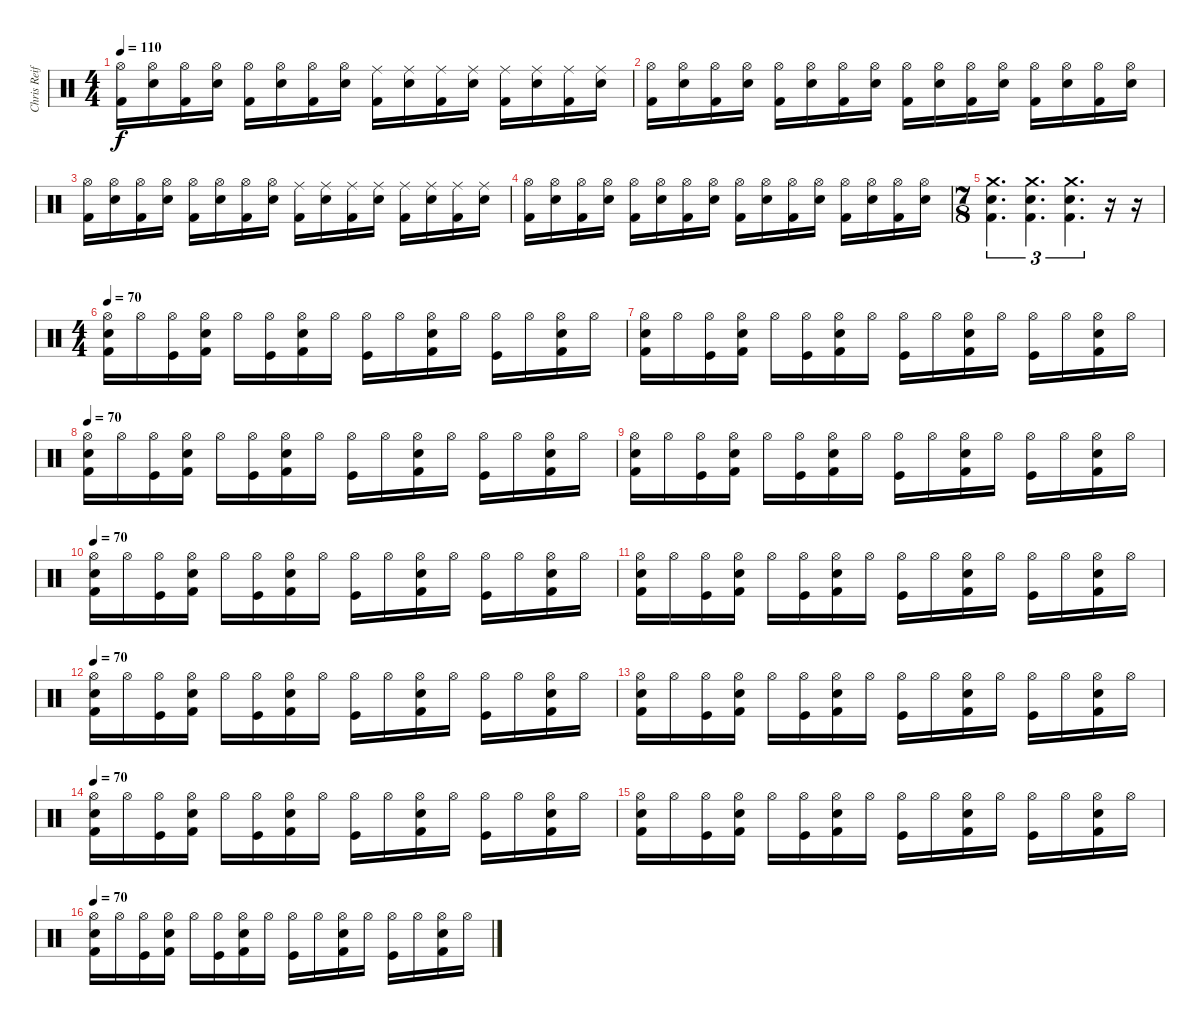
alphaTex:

\track ("Chris Reifert" "Chris Reif") {instrument percussion}
\staff {score}
\articulation defaults
\ts (4 4)
\tempo 110
\clef neutral
\ks c
("Hi-Hat (open)" "Kick (hit) 2").16{dy f} ("Hi-Hat (open)" "Snare (hit) 2").16 ("Hi-Hat (open)" "Kick (hit) 2").16 ("Hi-Hat (open)" "Snare (hit) 2").16 ("Hi-Hat (open)" "Kick (hit) 2").16 ("Hi-Hat (open)" "Snare (hit) 2").16 ("Hi-Hat (open)" "Kick (hit) 2").16 ("Hi-Hat (open)" "Snare (hit) 2").16 ("Ride (middle)" "Kick (hit) 2").16 ("Ride (middle)" "Snare (hit) 2").16 ("Ride (middle)" "Kick (hit) 2").16 ("Ride (middle)" "Snare (hit) 2").16 ("Ride (middle)" "Kick (hit) 2").16 ("Ride (middle)" "Snare (hit) 2").16 ("Ride (middle)" "Kick (hit) 2").16 ("Ride (middle)" "Snare (hit) 2").16 |
("Hi-Hat (open)" "Kick (hit) 2").16 ("Hi-Hat (open)" "Snare (hit) 2").16 ("Hi-Hat (open)" "Kick (hit) 2").16 ("Hi-Hat (open)" "Snare (hit) 2").16 ("Hi-Hat (open)" "Kick (hit) 2").16 ("Hi-Hat (open)" "Snare (hit) 2").16 ("Hi-Hat (open)" "Kick (hit) 2").16 ("Hi-Hat (open)" "Snare (hit) 2").16 ("Hi-Hat (open)" "Kick (hit) 2").16 ("Hi-Hat (open)" "Snare (hit) 2").16 ("Hi-Hat (open)" "Kick (hit) 2").16 ("Hi-Hat (open)" "Snare (hit) 2").16 ("Hi-Hat (open)" "Kick (hit) 2").16 ("Hi-Hat (open)" "Snare (hit) 2").16 ("Hi-Hat (open)" "Kick (hit) 2").16 ("Hi-Hat (open)" "Snare (hit) 2").16 |
("Hi-Hat (open)" "Kick (hit) 2").16 ("Hi-Hat (open)" "Snare (hit) 2").16 ("Hi-Hat (open)" "Kick (hit) 2").16 ("Hi-Hat (open)" "Snare (hit) 2").16 ("Hi-Hat (open)" "Kick (hit) 2").16 ("Hi-Hat (open)" "Snare (hit) 2").16 ("Hi-Hat (open)" "Kick (hit) 2").16 ("Hi-Hat (open)" "Snare (hit) 2").16 ("Ride (middle)" "Kick (hit) 2").16 ("Ride (middle)" "Snare (hit) 2").16 ("Ride (middle)" "Kick (hit) 2").16 ("Ride (middle)" "Snare (hit) 2").16 ("Ride (middle)" "Kick (hit) 2").16 ("Ride (middle)" "Snare (hit) 2").16 ("Ride (middle)" "Kick (hit) 2").16 ("Ride (middle)" "Snare (hit) 2").16 |
("Hi-Hat (open)" "Kick (hit) 2").16 ("Hi-Hat (open)" "Snare (hit) 2").16 ("Hi-Hat (open)" "Kick (hit) 2").16 ("Hi-Hat (open)" "Snare (hit) 2").16 ("Hi-Hat (open)" "Kick (hit) 2").16 ("Hi-Hat (open)" "Snare (hit) 2").16 ("Hi-Hat (open)" "Kick (hit) 2").16 ("Hi-Hat (open)" "Snare (hit) 2").16 ("Hi-Hat (open)" "Kick (hit) 2").16 ("Hi-Hat (open)" "Snare (hit) 2").16 ("Hi-Hat (open)" "Kick (hit) 2").16 ("Hi-Hat (open)" "Snare (hit) 2").16 ("Hi-Hat (open)" "Kick (hit) 2").16 ("Hi-Hat (open)" "Snare (hit) 2").16 ("Hi-Hat (open)" "Kick (hit) 2").16 ("Hi-Hat (open)" "Snare (hit) 2").16 |
\ts (7 8)
("Crash medium (hit)" "Snare (hit) 2" "Kick (hit) 2").4{d tu (3 2)} ("Crash medium (hit)" "Snare (hit) 2" "Kick (hit) 2").4{d tu (3 2)} ("Crash medium (hit)" "Snare (hit) 2" "Kick (hit) 2").4{d tu (3 2)} r.16 r.16 |
\ts (4 4)
\tempo 70
("Hi-Hat (open)" "Snare (hit) 2" "Kick (hit) 2").16 "Hi-Hat (open)".16 ("Hi-Hat (open)" "Kick (hit)").16 ("Hi-Hat (open)" "Snare (hit) 2" "Kick (hit) 2").16 "Hi-Hat (open)".16 ("Hi-Hat (open)" "Kick (hit)").16 ("Hi-Hat (open)" "Snare (hit) 2" "Kick (hit) 2").16 "Hi-Hat (open)".16 ("Hi-Hat (open)" "Kick (hit)").16 "Hi-Hat (open)".16 ("Hi-Hat (open)" "Snare (hit) 2" "Kick (hit) 2").16 "Hi-Hat (open)".16 ("Hi-Hat (open)" "Kick (hit)").16 "Hi-Hat (open)".16 ("Hi-Hat (open)" "Snare (hit) 2" "Kick (hit) 2").16 "Hi-Hat (open)".16 |
("Hi-Hat (open)" "Snare (hit) 2" "Kick (hit) 2").16 "Hi-Hat (open)".16 ("Hi-Hat (open)" "Kick (hit)").16 ("Hi-Hat (open)" "Snare (hit) 2" "Kick (hit) 2").16 "Hi-Hat (open)".16 ("Hi-Hat (open)" "Kick (hit)").16 ("Hi-Hat (open)" "Snare (hit) 2" "Kick (hit) 2").16 "Hi-Hat (open)".16 ("Hi-Hat (open)" "Kick (hit)").16 "Hi-Hat (open)".16 ("Hi-Hat (open)" "Snare (hit) 2" "Kick (hit) 2").16 "Hi-Hat (open)".16 ("Hi-Hat (open)" "Kick (hit)").16 "Hi-Hat (open)".16 ("Hi-Hat (open)" "Snare (hit) 2" "Kick (hit) 2").16 "Hi-Hat (open)".16 |
\tempo 70
("Hi-Hat (open)" "Snare (hit) 2" "Kick (hit) 2").16 "Hi-Hat (open)".16 ("Hi-Hat (open)" "Kick (hit)").16 ("Hi-Hat (open)" "Snare (hit) 2" "Kick (hit) 2").16 "Hi-Hat (open)".16 ("Hi-Hat (open)" "Kick (hit)").16 ("Hi-Hat (open)" "Snare (hit) 2" "Kick (hit) 2").16 "Hi-Hat (open)".16 ("Hi-Hat (open)" "Kick (hit)").16 "Hi-Hat (open)".16 ("Hi-Hat (open)" "Snare (hit) 2" "Kick (hit) 2").16 "Hi-Hat (open)".16 ("Hi-Hat (open)" "Kick (hit)").16 "Hi-Hat (open)".16 ("Hi-Hat (open)" "Snare (hit) 2" "Kick (hit) 2").16 "Hi-Hat (open)".16 |
("Hi-Hat (open)" "Snare (hit) 2" "Kick (hit) 2").16 "Hi-Hat (open)".16 ("Hi-Hat (open)" "Kick (hit)").16 ("Hi-Hat (open)" "Snare (hit) 2" "Kick (hit) 2").16 "Hi-Hat (open)".16 ("Hi-Hat (open)" "Kick (hit)").16 ("Hi-Hat (open)" "Snare (hit) 2" "Kick (hit) 2").16 "Hi-Hat (open)".16 ("Hi-Hat (open)" "Kick (hit)").16 "Hi-Hat (open)".16 ("Hi-Hat (open)" "Snare (hit) 2" "Kick (hit) 2").16 "Hi-Hat (open)".16 ("Hi-Hat (open)" "Kick (hit)").16 "Hi-Hat (open)".16 ("Hi-Hat (open)" "Snare (hit) 2" "Kick (hit) 2").16 "Hi-Hat (open)".16 |
\tempo 70
("Hi-Hat (open)" "Snare (hit) 2" "Kick (hit) 2").16 "Hi-Hat (open)".16 ("Hi-Hat (open)" "Kick (hit)").16 ("Hi-Hat (open)" "Snare (hit) 2" "Kick (hit) 2").16 "Hi-Hat (open)".16 ("Hi-Hat (open)" "Kick (hit)").16 ("Hi-Hat (open)" "Snare (hit) 2" "Kick (hit) 2").16 "Hi-Hat (open)".16 ("Hi-Hat (open)" "Kick (hit)").16 "Hi-Hat (open)".16 ("Hi-Hat (open)" "Snare (hit) 2" "Kick (hit) 2").16 "Hi-Hat (open)".16 ("Hi-Hat (open)" "Kick (hit)").16 "Hi-Hat (open)".16 ("Hi-Hat (open)" "Snare (hit) 2" "Kick (hit) 2").16 "Hi-Hat (open)".16 |
("Hi-Hat (open)" "Snare (hit) 2" "Kick (hit) 2").16 "Hi-Hat (open)".16 ("Hi-Hat (open)" "Kick (hit)").16 ("Hi-Hat (open)" "Snare (hit) 2" "Kick (hit) 2").16 "Hi-Hat (open)".16 ("Hi-Hat (open)" "Kick (hit)").16 ("Hi-Hat (open)" "Snare (hit) 2" "Kick (hit) 2").16 "Hi-Hat (open)".16 ("Hi-Hat (open)" "Kick (hit)").16 "Hi-Hat (open)".16 ("Hi-Hat (open)" "Snare (hit) 2" "Kick (hit) 2").16 "Hi-Hat (open)".16 ("Hi-Hat (open)" "Kick (hit)").16 "Hi-Hat (open)".16 ("Hi-Hat (open)" "Snare (hit) 2" "Kick (hit) 2").16 "Hi-Hat (open)".16 |
\tempo 70
("Hi-Hat (open)" "Snare (hit) 2" "Kick (hit) 2").16 "Hi-Hat (open)".16 ("Hi-Hat (open)" "Kick (hit)").16 ("Hi-Hat (open)" "Snare (hit) 2" "Kick (hit) 2").16 "Hi-Hat (open)".16 ("Hi-Hat (open)" "Kick (hit)").16 ("Hi-Hat (open)" "Snare (hit) 2" "Kick (hit) 2").16 "Hi-Hat (open)".16 ("Hi-Hat (open)" "Kick (hit)").16 "Hi-Hat (open)".16 ("Hi-Hat (open)" "Snare (hit) 2" "Kick (hit) 2").16 "Hi-Hat (open)".16 ("Hi-Hat (open)" "Kick (hit)").16 "Hi-Hat (open)".16 ("Hi-Hat (open)" "Snare (hit) 2" "Kick (hit) 2").16 "Hi-Hat (open)".16 |
("Hi-Hat (open)" "Snare (hit) 2" "Kick (hit) 2").16 "Hi-Hat (open)".16 ("Hi-Hat (open)" "Kick (hit)").16 ("Hi-Hat (open)" "Snare (hit) 2" "Kick (hit) 2").16 "Hi-Hat (open)".16 ("Hi-Hat (open)" "Kick (hit)").16 ("Hi-Hat (open)" "Snare (hit) 2" "Kick (hit) 2").16 "Hi-Hat (open)".16 ("Hi-Hat (open)" "Kick (hit)").16 "Hi-Hat (open)".16 ("Hi-Hat (open)" "Snare (hit) 2" "Kick (hit) 2").16 "Hi-Hat (open)".16 ("Hi-Hat (open)" "Kick (hit)").16 "Hi-Hat (open)".16 ("Hi-Hat (open)" "Snare (hit) 2" "Kick (hit) 2").16 "Hi-Hat (open)".16 |
\tempo 70
("Hi-Hat (open)" "Snare (hit) 2" "Kick (hit) 2").16 "Hi-Hat (open)".16 ("Hi-Hat (open)" "Kick (hit)").16 ("Hi-Hat (open)" "Snare (hit) 2" "Kick (hit) 2").16 "Hi-Hat (open)".16 ("Hi-Hat (open)" "Kick (hit)").16 ("Hi-Hat (open)" "Snare (hit) 2" "Kick (hit) 2").16 "Hi-Hat (open)".16 ("Hi-Hat (open)" "Kick (hit)").16 "Hi-Hat (open)".16 ("Hi-Hat (open)" "Snare (hit) 2" "Kick (hit) 2").16 "Hi-Hat (open)".16 ("Hi-Hat (open)" "Kick (hit)").16 "Hi-Hat (open)".16 ("Hi-Hat (open)" "Snare (hit) 2" "Kick (hit) 2").16 "Hi-Hat (open)".16 |
("Hi-Hat (open)" "Snare (hit) 2" "Kick (hit) 2").16 "Hi-Hat (open)".16 ("Hi-Hat (open)" "Kick (hit)").16 ("Hi-Hat (open)" "Snare (hit) 2" "Kick (hit) 2").16 "Hi-Hat (open)".16 ("Hi-Hat (open)" "Kick (hit)").16 ("Hi-Hat (open)" "Snare (hit) 2" "Kick (hit) 2").16 "Hi-Hat (open)".16 ("Hi-Hat (open)" "Kick (hit)").16 "Hi-Hat (open)".16 ("Hi-Hat (open)" "Snare (hit) 2" "Kick (hit) 2").16 "Hi-Hat (open)".16 ("Hi-Hat (open)" "Kick (hit)").16 "Hi-Hat (open)".16 ("Hi-Hat (open)" "Snare (hit) 2" "Kick (hit) 2").16 "Hi-Hat (open)".16 |
\tempo 70
("Hi-Hat (open)" "Snare (hit) 2" "Kick (hit) 2").16 "Hi-Hat (open)".16 ("Hi-Hat (open)" "Kick (hit)").16 ("Hi-Hat (open)" "Snare (hit) 2" "Kick (hit) 2").16 "Hi-Hat (open)".16 ("Hi-Hat (open)" "Kick (hit)").16 ("Hi-Hat (open)" "Snare (hit) 2" "Kick (hit) 2").16 "Hi-Hat (open)".16 ("Hi-Hat (open)" "Kick (hit)").16 "Hi-Hat (open)".16 ("Hi-Hat (open)" "Snare (hit) 2" "Kick (hit) 2").16 "Hi-Hat (open)".16 ("Hi-Hat (open)" "Kick (hit)").16 "Hi-Hat (open)".16 ("Hi-Hat (open)" "Snare (hit) 2" "Kick (hit) 2").16 "Hi-Hat (open)".16
